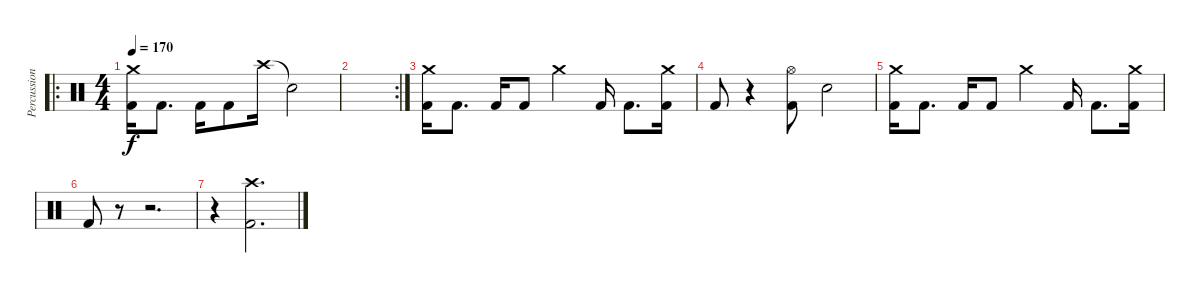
\track ("Percussion" "Percussion") {instrument percussion}
\staff {score}
\articulation defaults
\ro
\ts (4 4)
\tempo 170
\clef neutral
\ks c
("Crash medium (hit)" "Kick (hit) 2").16{dy f} "Kick (hit) 2".8{d} "Kick (hit) 2".16 "Kick (hit) 2".8 "Crash high (hit)".16 "Snare (hit)"{t}.2 |
\rc 2
|
("Crash medium (hit)" "Kick (hit) 2").16 "Kick (hit) 2".8{d} "Kick (hit) 2".16 "Kick (hit) 2".8 "Crash medium (hit)".4 "Kick (hit) 2".16 "Kick (hit) 2".8{d} ("Crash medium (hit)" "Kick (hit) 2").16 |
"Kick (hit) 2".8 r.4 ("Hi-Hat (open)" "Kick (hit) 2").8 "Electric Snare (hit)".2 |
("Crash medium (hit)" "Kick (hit) 2").16 "Kick (hit) 2".8{d} "Kick (hit) 2".16 "Kick (hit) 2".8 "Crash medium (hit)".4 "Kick (hit) 2".16 "Kick (hit) 2".8{d} ("Crash medium (hit)" "Kick (hit) 2").16 |
"Kick (hit) 2".8 r.8 r.2{d} |
r.4 ("Crash high (hit)" "Kick (hit) 2").2{d}
